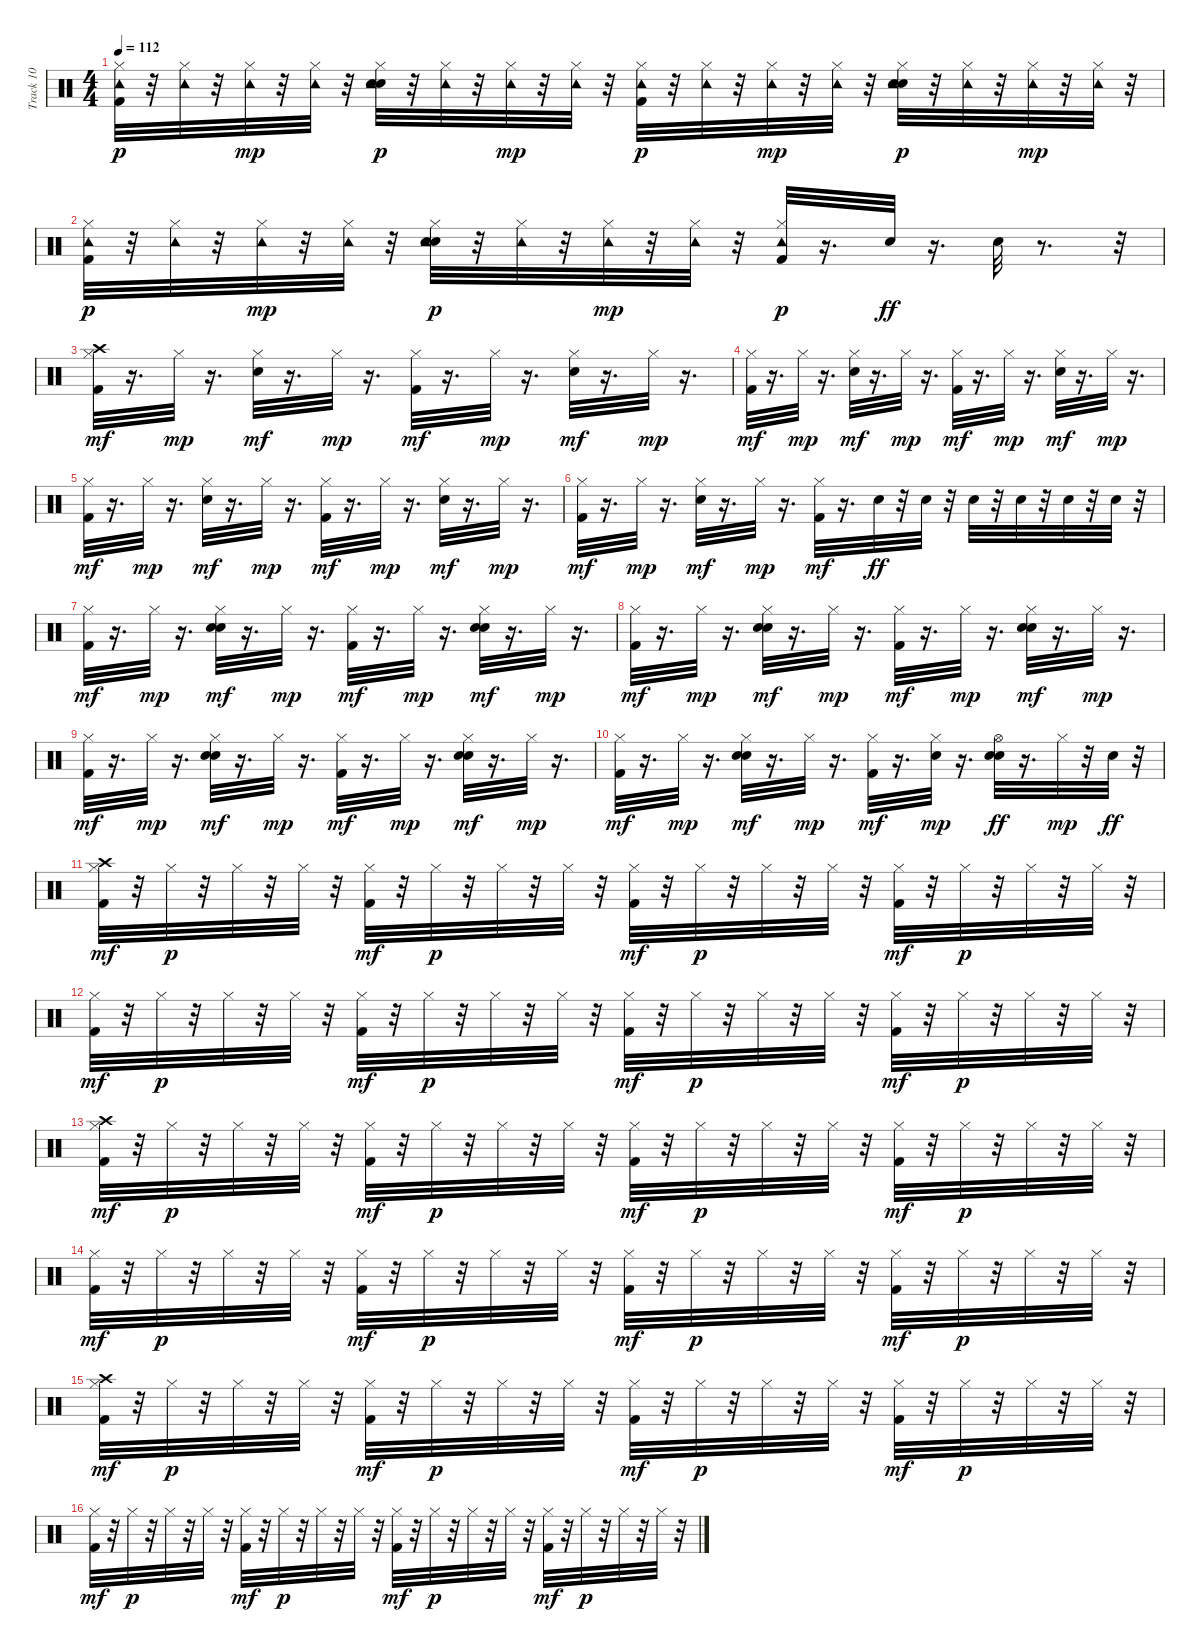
\track ("Track 10" "Track 10") {instrument percussion}
\staff {score}
\articulation defaults
\ts (4 4)
\tempo 112
\clef neutral
\ks c
("Kick (hit) 2" "Hi-Hat (closed)" "Tambourine (hit)").32{dy p} r.32 ("Hi-Hat (closed)" "Tambourine (hit)").32 r.32 ("Hi-Hat (closed)" "Tambourine (hit)").32{dy mp} r.32 ("Hi-Hat (closed)" "Tambourine (hit)").32 r.32 ("Hand Clap (hit)" "Electric Snare (hit)" "Hi-Hat (closed)" "Tambourine (hit)").32{dy p} r.32 ("Hi-Hat (closed)" "Tambourine (hit)").32 r.32 ("Hi-Hat (closed)" "Tambourine (hit)").32{dy mp} r.32 ("Hi-Hat (closed)" "Tambourine (hit)").32 r.32 ("Kick (hit) 2" "Hi-Hat (closed)" "Tambourine (hit)").32{dy p} r.32 ("Hi-Hat (closed)" "Tambourine (hit)").32 r.32 ("Hi-Hat (closed)" "Tambourine (hit)").32{dy mp} r.32 ("Hi-Hat (closed)" "Tambourine (hit)").32 r.32 ("Hand Clap (hit)" "Electric Snare (hit)" "Hi-Hat (closed)" "Tambourine (hit)").32{dy p} r.32 ("Hi-Hat (closed)" "Tambourine (hit)").32 r.32 ("Hi-Hat (closed)" "Tambourine (hit)").32{dy mp} r.32 ("Hi-Hat (closed)" "Tambourine (hit)").32 r.32 |
("Kick (hit) 2" "Hi-Hat (closed)" "Tambourine (hit)").32{dy p} r.32 ("Hi-Hat (closed)" "Tambourine (hit)").32 r.32 ("Hi-Hat (closed)" "Tambourine (hit)").32{dy mp} r.32 ("Hi-Hat (closed)" "Tambourine (hit)").32 r.32 ("Hand Clap (hit)" "Electric Snare (hit)" "Hi-Hat (closed)" "Tambourine (hit)").32{dy p} r.32 ("Hi-Hat (closed)" "Tambourine (hit)").32 r.32 ("Hi-Hat (closed)" "Tambourine (hit)").32{dy mp} r.32 ("Hi-Hat (closed)" "Tambourine (hit)").32 r.32 ("Kick (hit) 2" "Hi-Hat (closed)" "Tambourine (hit)").32{dy p} r.16{d} "Hand Clap (hit)".32{dy ff} r.16{d} "Hand Clap (hit)".32 r.8{d} r.32 |
("Kick (hit) 2" "Hi-Hat (closed)" "Crash high (hit)").32{dy mf} r.16{d} "Hi-Hat (closed)".32{dy mp} r.16{d} ("Electric Snare (hit)" "Hi-Hat (closed)").32{dy mf} r.16{d} "Hi-Hat (closed)".32{dy mp} r.16{d} ("Kick (hit) 2" "Hi-Hat (closed)").32{dy mf} r.16{d} "Hi-Hat (closed)".32{dy mp} r.16{d} ("Electric Snare (hit)" "Hi-Hat (closed)").32{dy mf} r.16{d} "Hi-Hat (closed)".32{dy mp} r.16{d} |
("Kick (hit) 2" "Hi-Hat (closed)").32{dy mf} r.16{d} "Hi-Hat (closed)".32{dy mp} r.16{d} ("Electric Snare (hit)" "Hi-Hat (closed)").32{dy mf} r.16{d} "Hi-Hat (closed)".32{dy mp} r.16{d} ("Kick (hit) 2" "Hi-Hat (closed)").32{dy mf} r.16{d} "Hi-Hat (closed)".32{dy mp} r.16{d} ("Electric Snare (hit)" "Hi-Hat (closed)").32{dy mf} r.16{d} "Hi-Hat (closed)".32{dy mp} r.16{d} |
("Kick (hit) 2" "Hi-Hat (closed)").32{dy mf} r.16{d} "Hi-Hat (closed)".32{dy mp} r.16{d} ("Electric Snare (hit)" "Hi-Hat (closed)").32{dy mf} r.16{d} "Hi-Hat (closed)".32{dy mp} r.16{d} ("Kick (hit) 2" "Hi-Hat (closed)").32{dy mf} r.16{d} "Hi-Hat (closed)".32{dy mp} r.16{d} ("Electric Snare (hit)" "Hi-Hat (closed)").32{dy mf} r.16{d} "Hi-Hat (closed)".32{dy mp} r.16{d} |
("Kick (hit) 2" "Hi-Hat (closed)").32{dy mf} r.16{d} "Hi-Hat (closed)".32{dy mp} r.16{d} ("Electric Snare (hit)" "Hi-Hat (closed)").32{dy mf} r.16{d} "Hi-Hat (closed)".32{dy mp} r.16{d} ("Kick (hit) 2" "Hi-Hat (closed)").32{dy mf} r.16{d} "Electric Snare (hit)".32{dy ff} r.32 "Electric Snare (hit)".32 r.32 "Electric Snare (hit)".32 r.32 "Electric Snare (hit)".32 r.32 "Electric Snare (hit)".32 r.32 "Electric Snare (hit)".32 r.32 |
("Kick (hit) 2" "Hi-Hat (closed)").32{dy mf} r.16{d} "Hi-Hat (closed)".32{dy mp} r.16{d} ("Hand Clap (hit)" "Electric Snare (hit)" "Hi-Hat (closed)").32{dy mf} r.16{d} "Hi-Hat (closed)".32{dy mp} r.16{d} ("Kick (hit) 2" "Hi-Hat (closed)").32{dy mf} r.16{d} "Hi-Hat (closed)".32{dy mp} r.16{d} ("Hand Clap (hit)" "Electric Snare (hit)" "Hi-Hat (closed)").32{dy mf} r.16{d} "Hi-Hat (closed)".32{dy mp} r.16{d} |
("Kick (hit) 2" "Hi-Hat (closed)").32{dy mf} r.16{d} "Hi-Hat (closed)".32{dy mp} r.16{d} ("Hand Clap (hit)" "Electric Snare (hit)" "Hi-Hat (closed)").32{dy mf} r.16{d} "Hi-Hat (closed)".32{dy mp} r.16{d} ("Kick (hit) 2" "Hi-Hat (closed)").32{dy mf} r.16{d} "Hi-Hat (closed)".32{dy mp} r.16{d} ("Hand Clap (hit)" "Electric Snare (hit)" "Hi-Hat (closed)").32{dy mf} r.16{d} "Hi-Hat (closed)".32{dy mp} r.16{d} |
("Kick (hit) 2" "Hi-Hat (closed)").32{dy mf} r.16{d} "Hi-Hat (closed)".32{dy mp} r.16{d} ("Hand Clap (hit)" "Electric Snare (hit)" "Hi-Hat (closed)").32{dy mf} r.16{d} "Hi-Hat (closed)".32{dy mp} r.16{d} ("Kick (hit) 2" "Hi-Hat (closed)").32{dy mf} r.16{d} "Hi-Hat (closed)".32{dy mp} r.16{d} ("Hand Clap (hit)" "Electric Snare (hit)" "Hi-Hat (closed)").32{dy mf} r.16{d} "Hi-Hat (closed)".32{dy mp} r.16{d} |
("Kick (hit) 2" "Hi-Hat (closed)").32{dy mf} r.16{d} "Hi-Hat (closed)".32{dy mp} r.16{d} ("Hand Clap (hit)" "Electric Snare (hit)" "Hi-Hat (closed)").32{dy mf} r.16{d} "Hi-Hat (closed)".32{dy mp} r.16{d} ("Kick (hit) 2" "Hi-Hat (closed)").32{dy mf} r.16{d} ("Hand Clap (hit)" "Hi-Hat (closed)").32{dy mp} r.16{d} ("Hand Clap (hit)" "Electric Snare (hit)" "Hi-Hat (open)").32{dy ff} r.16{d} "Hi-Hat (closed)".32{dy mp} r.32 "Electric Snare (hit)".32{dy ff} r.32 |
("Kick (hit) 2" "Hi-Hat (closed)" "Crash high (hit)").32{dy mf} r.32 "Hi-Hat (closed)".32{dy p} r.32 "Hi-Hat (closed)".32 r.32 "Hi-Hat (closed)".32 r.32 ("Kick (hit) 2" "Hi-Hat (closed)").32{dy mf} r.32 "Hi-Hat (closed)".32{dy p} r.32 "Hi-Hat (closed)".32 r.32 "Hi-Hat (closed)".32 r.32 ("Kick (hit) 2" "Hi-Hat (closed)").32{dy mf} r.32 "Hi-Hat (closed)".32{dy p} r.32 "Hi-Hat (closed)".32 r.32 "Hi-Hat (closed)".32 r.32 ("Kick (hit) 2" "Hi-Hat (closed)").32{dy mf} r.32 "Hi-Hat (closed)".32{dy p} r.32 "Hi-Hat (closed)".32 r.32 "Hi-Hat (closed)".32 r.32 |
("Kick (hit) 2" "Hi-Hat (closed)").32{dy mf} r.32 "Hi-Hat (closed)".32{dy p} r.32 "Hi-Hat (closed)".32 r.32 "Hi-Hat (closed)".32 r.32 ("Kick (hit) 2" "Hi-Hat (closed)").32{dy mf} r.32 "Hi-Hat (closed)".32{dy p} r.32 "Hi-Hat (closed)".32 r.32 "Hi-Hat (closed)".32 r.32 ("Kick (hit) 2" "Hi-Hat (closed)").32{dy mf} r.32 "Hi-Hat (closed)".32{dy p} r.32 "Hi-Hat (closed)".32 r.32 "Hi-Hat (closed)".32 r.32 ("Kick (hit) 2" "Hi-Hat (closed)").32{dy mf} r.32 "Hi-Hat (closed)".32{dy p} r.32 "Hi-Hat (closed)".32 r.32 "Hi-Hat (closed)".32 r.32 |
("Kick (hit) 2" "Hi-Hat (closed)" "Crash high (hit)").32{dy mf} r.32 "Hi-Hat (closed)".32{dy p} r.32 "Hi-Hat (closed)".32 r.32 "Hi-Hat (closed)".32 r.32 ("Kick (hit) 2" "Hi-Hat (closed)").32{dy mf} r.32 "Hi-Hat (closed)".32{dy p} r.32 "Hi-Hat (closed)".32 r.32 "Hi-Hat (closed)".32 r.32 ("Kick (hit) 2" "Hi-Hat (closed)").32{dy mf} r.32 "Hi-Hat (closed)".32{dy p} r.32 "Hi-Hat (closed)".32 r.32 "Hi-Hat (closed)".32 r.32 ("Kick (hit) 2" "Hi-Hat (closed)").32{dy mf} r.32 "Hi-Hat (closed)".32{dy p} r.32 "Hi-Hat (closed)".32 r.32 "Hi-Hat (closed)".32 r.32 |
("Kick (hit) 2" "Hi-Hat (closed)").32{dy mf} r.32 "Hi-Hat (closed)".32{dy p} r.32 "Hi-Hat (closed)".32 r.32 "Hi-Hat (closed)".32 r.32 ("Kick (hit) 2" "Hi-Hat (closed)").32{dy mf} r.32 "Hi-Hat (closed)".32{dy p} r.32 "Hi-Hat (closed)".32 r.32 "Hi-Hat (closed)".32 r.32 ("Kick (hit) 2" "Hi-Hat (closed)").32{dy mf} r.32 "Hi-Hat (closed)".32{dy p} r.32 "Hi-Hat (closed)".32 r.32 "Hi-Hat (closed)".32 r.32 ("Kick (hit) 2" "Hi-Hat (closed)").32{dy mf} r.32 "Hi-Hat (closed)".32{dy p} r.32 "Hi-Hat (closed)".32 r.32 "Hi-Hat (closed)".32 r.32 |
("Kick (hit) 2" "Hi-Hat (closed)" "Crash high (hit)").32{dy mf} r.32 "Hi-Hat (closed)".32{dy p} r.32 "Hi-Hat (closed)".32 r.32 "Hi-Hat (closed)".32 r.32 ("Kick (hit) 2" "Hi-Hat (closed)").32{dy mf} r.32 "Hi-Hat (closed)".32{dy p} r.32 "Hi-Hat (closed)".32 r.32 "Hi-Hat (closed)".32 r.32 ("Kick (hit) 2" "Hi-Hat (closed)").32{dy mf} r.32 "Hi-Hat (closed)".32{dy p} r.32 "Hi-Hat (closed)".32 r.32 "Hi-Hat (closed)".32 r.32 ("Kick (hit) 2" "Hi-Hat (closed)").32{dy mf} r.32 "Hi-Hat (closed)".32{dy p} r.32 "Hi-Hat (closed)".32 r.32 "Hi-Hat (closed)".32 r.32 |
("Kick (hit) 2" "Hi-Hat (closed)").32{dy mf} r.32 "Hi-Hat (closed)".32{dy p} r.32 "Hi-Hat (closed)".32 r.32 "Hi-Hat (closed)".32 r.32 ("Kick (hit) 2" "Hi-Hat (closed)").32{dy mf} r.32 "Hi-Hat (closed)".32{dy p} r.32 "Hi-Hat (closed)".32 r.32 "Hi-Hat (closed)".32 r.32 ("Kick (hit) 2" "Hi-Hat (closed)").32{dy mf} r.32 "Hi-Hat (closed)".32{dy p} r.32 "Hi-Hat (closed)".32 r.32 "Hi-Hat (closed)".32 r.32 ("Kick (hit) 2" "Hi-Hat (closed)").32{dy mf} r.32 "Hi-Hat (closed)".32{dy p} r.32 "Hi-Hat (closed)".32 r.32 "Hi-Hat (closed)".32 r.32
